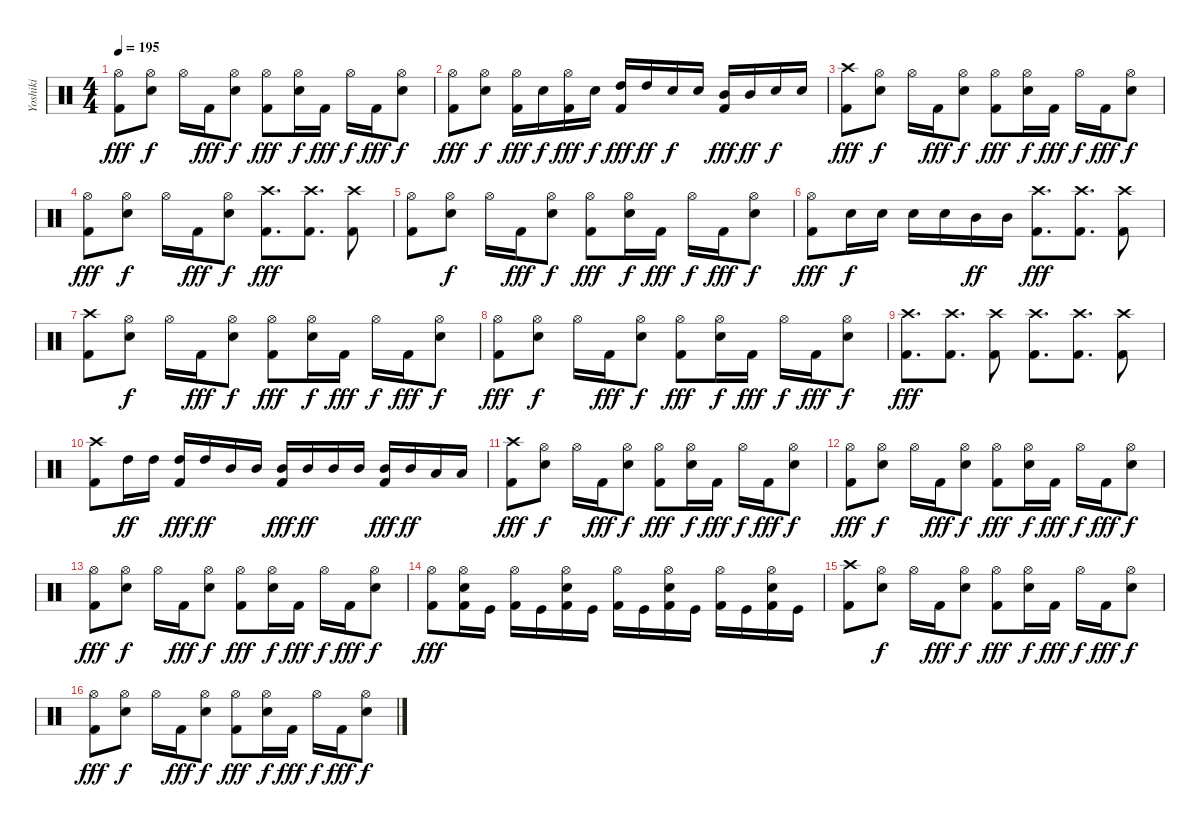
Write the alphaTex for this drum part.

\track ("Yoshiki" "Yoshiki") {instrument percussion}
\staff {score}
\articulation defaults
\ts (4 4)
\tempo 195
\clef neutral
\ks c
("Hi-Hat (open)" "Kick (hit) 2").8{dy fff} ("Hi-Hat (open)" "Electric Snare (hit)").8{dy f} "Hi-Hat (open)".16 "Kick (hit) 2".16{dy fff} ("Hi-Hat (open)" "Electric Snare (hit)").8{dy f} ("Hi-Hat (open)" "Kick (hit) 2").8{dy fff} ("Hi-Hat (open)" "Electric Snare (hit)").16{dy f} "Kick (hit) 2".16{dy fff} "Hi-Hat (open)".16{dy f} "Kick (hit) 2".16{dy fff} ("Hi-Hat (open)" "Electric Snare (hit)").8{dy f} |
("Hi-Hat (open)" "Kick (hit) 2").8{dy fff} ("Hi-Hat (open)" "Electric Snare (hit)").8{dy f} ("Hi-Hat (open)" "Kick (hit) 2").16{dy fff} "Electric Snare (hit)".16{dy f} ("Hi-Hat (open)" "Kick (hit) 2").16{dy fff} "Electric Snare (hit)".16{dy f} ("High Tom (hit)" "Kick (hit) 2").16{dy fff} "High Tom (hit)".16{dy ff} "Electric Snare (hit)".16{dy f} "Electric Snare (hit)".16 ("Mid Tom (hit)" "Kick (hit) 2").16{dy fff} "Mid Tom (hit)".16{dy ff} "Electric Snare (hit)".16{dy f} "Electric Snare (hit)".16 |
("Crash high (hit)" "Kick (hit) 2").8{dy fff} ("Hi-Hat (open)" "Electric Snare (hit)").8{dy f} "Hi-Hat (open)".16 "Kick (hit) 2".16{dy fff} ("Hi-Hat (open)" "Electric Snare (hit)").8{dy f} ("Hi-Hat (open)" "Kick (hit) 2").8{dy fff} ("Hi-Hat (open)" "Electric Snare (hit)").16{dy f} "Kick (hit) 2".16{dy fff} "Hi-Hat (open)".16{dy f} "Kick (hit) 2".16{dy fff} ("Hi-Hat (open)" "Electric Snare (hit)").8{dy f} |
("Hi-Hat (open)" "Kick (hit) 2").8{dy fff} ("Hi-Hat (open)" "Electric Snare (hit)").8{dy f} "Hi-Hat (open)".16 "Kick (hit) 2".16{dy fff} ("Hi-Hat (open)" "Electric Snare (hit)").8{dy f} ("Crash high (hit)" "Kick (hit) 2").8{d dy fff} ("Crash high (hit)" "Kick (hit) 2").8{d} ("Crash high (hit)" "Kick (hit) 2").8 |
("Hi-Hat (open)" "Kick (hit) 2").8 ("Hi-Hat (open)" "Electric Snare (hit)").8{dy f} "Hi-Hat (open)".16 "Kick (hit) 2".16{dy fff} ("Hi-Hat (open)" "Electric Snare (hit)").8{dy f} ("Hi-Hat (open)" "Kick (hit) 2").8{dy fff} ("Hi-Hat (open)" "Electric Snare (hit)").16{dy f} "Kick (hit) 2".16{dy fff} "Hi-Hat (open)".16{dy f} "Kick (hit) 2".16{dy fff} ("Hi-Hat (open)" "Electric Snare (hit)").8{dy f} |
("Hi-Hat (open)" "Kick (hit) 2").8{dy fff} "Electric Snare (hit)".16{dy f} "Electric Snare (hit)".16 "Electric Snare (hit)".16 "Electric Snare (hit)".16 "Mid Tom (hit)".16{dy ff} "Mid Tom (hit)".16 ("Crash high (hit)" "Kick (hit) 2").8{d dy fff} ("Crash high (hit)" "Kick (hit) 2").8{d} ("Crash high (hit)" "Kick (hit) 2").8 |
("Crash high (hit)" "Kick (hit) 2").8 ("Hi-Hat (open)" "Electric Snare (hit)").8{dy f} "Hi-Hat (open)".16 "Kick (hit) 2".16{dy fff} ("Hi-Hat (open)" "Electric Snare (hit)").8{dy f} ("Hi-Hat (open)" "Kick (hit) 2").8{dy fff} ("Hi-Hat (open)" "Electric Snare (hit)").16{dy f} "Kick (hit) 2".16{dy fff} "Hi-Hat (open)".16{dy f} "Kick (hit) 2".16{dy fff} ("Hi-Hat (open)" "Electric Snare (hit)").8{dy f} |
("Hi-Hat (open)" "Kick (hit) 2").8{dy fff} ("Hi-Hat (open)" "Electric Snare (hit)").8{dy f} "Hi-Hat (open)".16 "Kick (hit) 2".16{dy fff} ("Hi-Hat (open)" "Electric Snare (hit)").8{dy f} ("Hi-Hat (open)" "Kick (hit) 2").8{dy fff} ("Hi-Hat (open)" "Electric Snare (hit)").16{dy f} "Kick (hit) 2".16{dy fff} "Hi-Hat (open)".16{dy f} "Kick (hit) 2".16{dy fff} ("Hi-Hat (open)" "Electric Snare (hit)").8{dy f} |
("Crash high (hit)" "Kick (hit) 2").8{d dy fff} ("Crash high (hit)" "Kick (hit) 2").8{d} ("Crash high (hit)" "Kick (hit) 2").8 ("Crash high (hit)" "Kick (hit) 2").8{d} ("Crash high (hit)" "Kick (hit) 2").8{d} ("Crash high (hit)" "Kick (hit) 2").8 |
("Crash high (hit)" "Kick (hit) 2").8 "High Tom (hit)".16{dy ff} "High Tom (hit)".16 ("High Tom (hit)" "Kick (hit) 2").16{dy fff} "High Tom (hit)".16{dy ff} "Mid Tom (hit)".16 "Mid Tom (hit)".16 ("Mid Tom (hit)" "Kick (hit) 2").16{dy fff} "Mid Tom (hit)".16{dy ff} "Mid Tom (hit)".16 "Mid Tom (hit)".16 ("Mid Tom (hit)" "Kick (hit) 2").16{dy fff} "Mid Tom (hit)".16{dy ff} "Low Tom (hit)".16 "Low Tom (hit)".16 |
("Crash high (hit)" "Kick (hit) 2").8{dy fff} ("Hi-Hat (open)" "Electric Snare (hit)").8{dy f} "Hi-Hat (open)".16 "Kick (hit) 2".16{dy fff} ("Hi-Hat (open)" "Electric Snare (hit)").8{dy f} ("Hi-Hat (open)" "Kick (hit) 2").8{dy fff} ("Hi-Hat (open)" "Electric Snare (hit)").16{dy f} "Kick (hit) 2".16{dy fff} "Hi-Hat (open)".16{dy f} "Kick (hit) 2".16{dy fff} ("Hi-Hat (open)" "Electric Snare (hit)").8{dy f} |
("Hi-Hat (open)" "Kick (hit) 2").8{dy fff} ("Hi-Hat (open)" "Electric Snare (hit)").8{dy f} "Hi-Hat (open)".16 "Kick (hit) 2".16{dy fff} ("Hi-Hat (open)" "Electric Snare (hit)").8{dy f} ("Hi-Hat (open)" "Kick (hit) 2").8{dy fff} ("Hi-Hat (open)" "Electric Snare (hit)").16{dy f} "Kick (hit) 2".16{dy fff} "Hi-Hat (open)".16{dy f} "Kick (hit) 2".16{dy fff} ("Hi-Hat (open)" "Electric Snare (hit)").8{dy f} |
("Hi-Hat (open)" "Kick (hit) 2").8{dy fff} ("Hi-Hat (open)" "Electric Snare (hit)").8{dy f} "Hi-Hat (open)".16 "Kick (hit) 2".16{dy fff} ("Hi-Hat (open)" "Electric Snare (hit)").8{dy f} ("Hi-Hat (open)" "Kick (hit) 2").8{dy fff} ("Hi-Hat (open)" "Electric Snare (hit)").16{dy f} "Kick (hit) 2".16{dy fff} "Hi-Hat (open)".16{dy f} "Kick (hit) 2".16{dy fff} ("Hi-Hat (open)" "Electric Snare (hit)").8{dy f} |
("Hi-Hat (open)" "Kick (hit) 2").8{dy fff} ("Hi-Hat (open)" "Electric Snare (hit)" "Kick (hit) 2").16 "Kick (hit)".16 ("Hi-Hat (open)" "Kick (hit) 2").16 "Kick (hit)".16 ("Hi-Hat (open)" "Electric Snare (hit)" "Kick (hit) 2").16 "Kick (hit)".16 ("Hi-Hat (open)" "Kick (hit) 2").16 "Kick (hit)".16 ("Hi-Hat (open)" "Electric Snare (hit)" "Kick (hit) 2").16 "Kick (hit)".16 ("Hi-Hat (open)" "Kick (hit) 2").16 "Kick (hit)".16 ("Hi-Hat (open)" "Electric Snare (hit)" "Kick (hit) 2").16 "Kick (hit)".16 |
("Crash high (hit)" "Kick (hit) 2").8 ("Hi-Hat (open)" "Electric Snare (hit)").8{dy f} "Hi-Hat (open)".16 "Kick (hit) 2".16{dy fff} ("Hi-Hat (open)" "Electric Snare (hit)").8{dy f} ("Hi-Hat (open)" "Kick (hit) 2").8{dy fff} ("Hi-Hat (open)" "Electric Snare (hit)").16{dy f} "Kick (hit) 2".16{dy fff} "Hi-Hat (open)".16{dy f} "Kick (hit) 2".16{dy fff} ("Hi-Hat (open)" "Electric Snare (hit)").8{dy f} |
("Hi-Hat (open)" "Kick (hit) 2").8{dy fff} ("Hi-Hat (open)" "Electric Snare (hit)").8{dy f} "Hi-Hat (open)".16 "Kick (hit) 2".16{dy fff} ("Hi-Hat (open)" "Electric Snare (hit)").8{dy f} ("Hi-Hat (open)" "Kick (hit) 2").8{dy fff} ("Hi-Hat (open)" "Electric Snare (hit)").16{dy f} "Kick (hit) 2".16{dy fff} "Hi-Hat (open)".16{dy f} "Kick (hit) 2".16{dy fff} ("Hi-Hat (open)" "Electric Snare (hit)").8{dy f}
